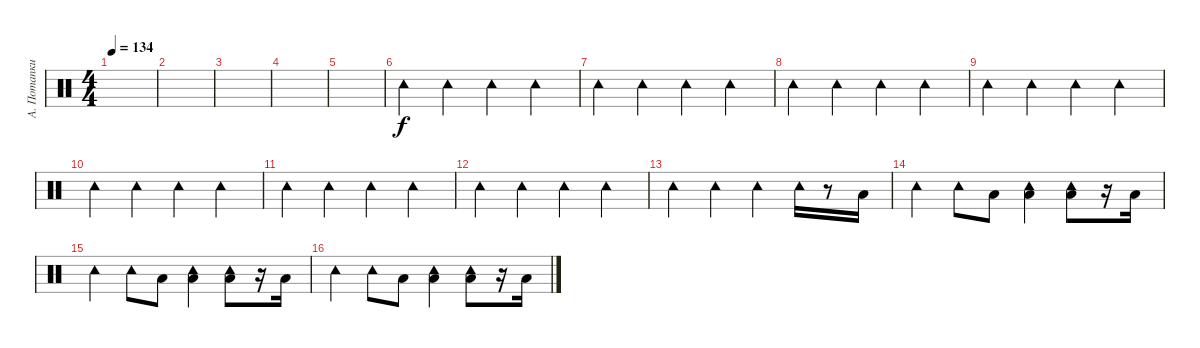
\track ("А. Потапкин" "А. Потапки") {instrument percussion}
\staff {score}
\articulation defaults
\ts (4 4)
\tempo 134
\clef neutral
\ks c
|
|
|
|
|
"Tambourine (hit)".4 "Tambourine (hit)".4 "Tambourine (hit)".4 "Tambourine (hit)".4 |
"Tambourine (hit)".4 "Tambourine (hit)".4 "Tambourine (hit)".4 "Tambourine (hit)".4 |
"Tambourine (hit)".4 "Tambourine (hit)".4 "Tambourine (hit)".4 "Tambourine (hit)".4 |
"Tambourine (hit)".4 "Tambourine (hit)".4 "Tambourine (hit)".4 "Tambourine (hit)".4 |
"Tambourine (hit)".4 "Tambourine (hit)".4 "Tambourine (hit)".4 "Tambourine (hit)".4 |
"Tambourine (hit)".4 "Tambourine (hit)".4 "Tambourine (hit)".4 "Tambourine (hit)".4 |
"Tambourine (hit)".4 "Tambourine (hit)".4 "Tambourine (hit)".4 "Tambourine (hit)".4 |
"Tambourine (hit)".4 "Tambourine (hit)".4 "Tambourine (hit)".4 "Tambourine (hit)".16 r.8 "Low Tom (hit)".16 |
"Tambourine (hit)".4 "Tambourine (hit)".8 "Low Tom (hit)".8 ("Tambourine (hit)" "Low Tom (hit)").4 ("Tambourine (hit)" "Low Tom (hit)").8 r.16 "Low Tom (hit)".16 |
"Tambourine (hit)".4 "Tambourine (hit)".8 "Low Tom (hit)".8 ("Tambourine (hit)" "Low Tom (hit)").4 ("Tambourine (hit)" "Low Tom (hit)").8 r.16 "Low Tom (hit)".16 |
"Tambourine (hit)".4 "Tambourine (hit)".8 "Low Tom (hit)".8 ("Tambourine (hit)" "Low Tom (hit)").4 ("Tambourine (hit)" "Low Tom (hit)").8 r.16 "Low Tom (hit)".16
